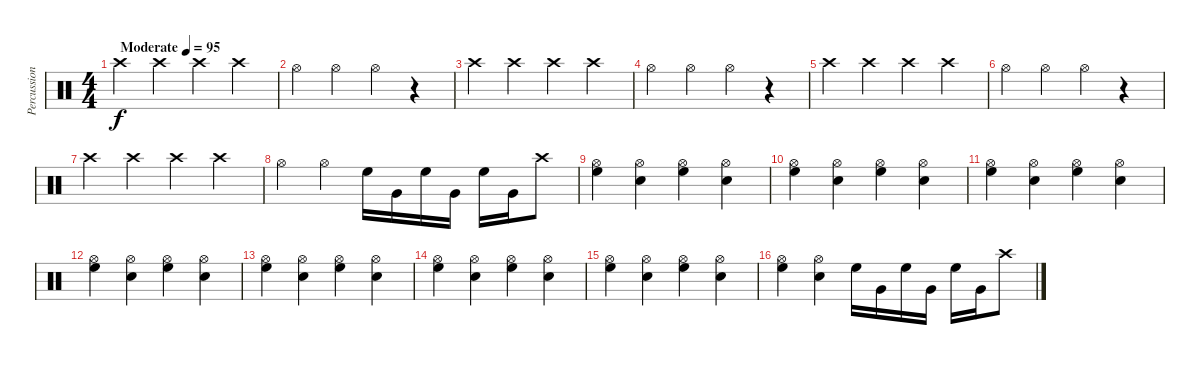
\track ("Percussion" "Percussion") {instrument percussion}
\staff {score}
\articulation defaults
\ts (4 4)
\tempo (95 "Moderate")
\clef neutral
\ks c "Crash high (hit)".4{dy f} "Crash high (hit)".4 "Crash high (hit)".4 "Crash high (hit)".4
|
"Hi-Hat (open)".4 "Hi-Hat (open)".4 "Hi-Hat (open)".4 r.4 |
"Crash high (hit)".4 "Crash high (hit)".4 "Crash high (hit)".4 "Crash high (hit)".4 |
"Hi-Hat (open)".4 "Hi-Hat (open)".4 "Hi-Hat (open)".4 r.4 |
"Crash high (hit)".4 "Crash high (hit)".4 "Crash high (hit)".4 "Crash high (hit)".4 |
"Hi-Hat (open)".4 "Hi-Hat (open)".4 "Hi-Hat (open)".4 r.4 |
"Crash high (hit)".4 "Crash high (hit)".4 "Crash high (hit)".4 "Crash high (hit)".4 |
"Hi-Hat (open)".4 "Hi-Hat (open)".4 "High Floor Tom (hit)".16 "Very Low Tom (hit)".16 "High Floor Tom (hit)".16 "Very Low Tom (hit)".16 "High Floor Tom (hit)".16 "Very Low Tom (hit)".16 "Crash high (hit)".8 |
("High Floor Tom (hit)" "Hi-Hat (open)").4 ("Snare (hit) 2" "Hi-Hat (open)").4 ("High Floor Tom (hit)" "Hi-Hat (open)").4 ("Snare (hit) 2" "Hi-Hat (open)").4 |
("High Floor Tom (hit)" "Hi-Hat (open)").4 ("Snare (hit) 2" "Hi-Hat (open)").4 ("High Floor Tom (hit)" "Hi-Hat (open)").4 ("Snare (hit) 2" "Hi-Hat (open)").4 |
("High Floor Tom (hit)" "Hi-Hat (open)").4 ("Snare (hit) 2" "Hi-Hat (open)").4 ("High Floor Tom (hit)" "Hi-Hat (open)").4 ("Snare (hit) 2" "Hi-Hat (open)").4 |
("High Floor Tom (hit)" "Hi-Hat (open)").4 ("Snare (hit) 2" "Hi-Hat (open)").4 ("High Floor Tom (hit)" "Hi-Hat (open)").4 ("Snare (hit) 2" "Hi-Hat (open)").4 |
("High Floor Tom (hit)" "Hi-Hat (open)").4 ("Snare (hit) 2" "Hi-Hat (open)").4 ("High Floor Tom (hit)" "Hi-Hat (open)").4 ("Snare (hit) 2" "Hi-Hat (open)").4 |
("High Floor Tom (hit)" "Hi-Hat (open)").4 ("Snare (hit) 2" "Hi-Hat (open)").4 ("High Floor Tom (hit)" "Hi-Hat (open)").4 ("Snare (hit) 2" "Hi-Hat (open)").4 |
("High Floor Tom (hit)" "Hi-Hat (open)").4 ("Snare (hit) 2" "Hi-Hat (open)").4 ("High Floor Tom (hit)" "Hi-Hat (open)").4 ("Snare (hit) 2" "Hi-Hat (open)").4 |
("High Floor Tom (hit)" "Hi-Hat (open)").4 ("Snare (hit) 2" "Hi-Hat (open)").4 "High Floor Tom (hit)".16 "Very Low Tom (hit)".16 "High Floor Tom (hit)".16 "Very Low Tom (hit)".16 "High Floor Tom (hit)".16 "Very Low Tom (hit)".16 "Crash high (hit)".8
